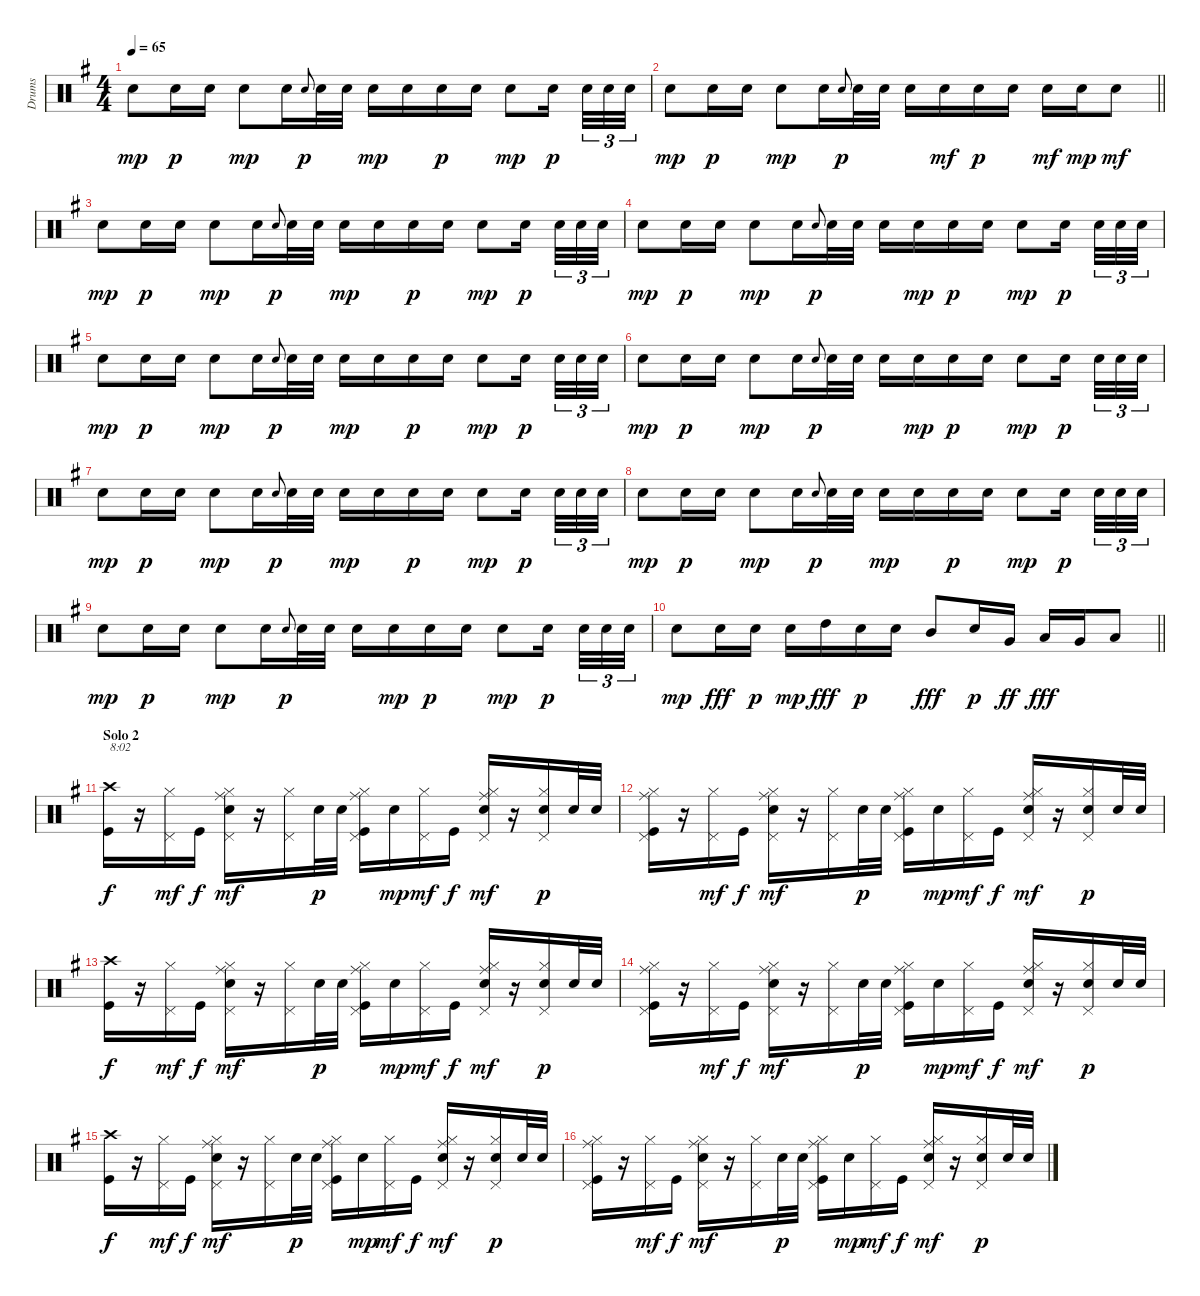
\track ("Drums" "Drums") {instrument percussion}
\staff {score}
\articulation defaults
\ts (4 4)
\tempo 65
\clef neutral
\ks eminor "Electric Snare (hit)".8{dy mp} "Electric Snare (hit)".16{dy p} "Electric Snare (hit)".16 "Electric Snare (hit)".8{dy mp} "Electric Snare (hit)".16 "Electric Snare (hit)".8{gr onbeat dy p} "Electric Snare (hit)".32 "Electric Snare (hit)".32 "Electric Snare (hit)".16{dy mp} "Electric Snare (hit)".16 "Electric Snare (hit)".16{dy p} "Electric Snare (hit)".16 "Electric Snare (hit)".8{dy mp} "Electric Snare (hit)".16{dy p beam splitsecondary} "Electric Snare (hit)".32{tu (3 2)} "Electric Snare (hit)".32{tu (3 2)} "Electric Snare (hit)".32{tu (3 2)}
|
\barLineRight lightlight "Electric Snare (hit)".8{dy mp} "Electric Snare (hit)".16{dy p} "Electric Snare (hit)".16 "Electric Snare (hit)".8{dy mp} "Electric Snare (hit)".16 "Electric Snare (hit)".8{gr onbeat dy p} "Electric Snare (hit)".32 "Electric Snare (hit)".32 "Electric Snare (hit)".16 "Electric Snare (hit)".16{dy mf} "Electric Snare (hit)".16{dy p} "Electric Snare (hit)".16 "Electric Snare (hit)".16{dy mf} "Electric Snare (hit)".16{dy mp} "Electric Snare (hit)".8{dy mf}
|
\section ("" "")
"Electric Snare (hit)".8{dy mp} "Electric Snare (hit)".16{dy p} "Electric Snare (hit)".16 "Electric Snare (hit)".8{dy mp} "Electric Snare (hit)".16 "Electric Snare (hit)".8{gr onbeat dy p} "Electric Snare (hit)".32 "Electric Snare (hit)".32 "Electric Snare (hit)".16{dy mp} "Electric Snare (hit)".16 "Electric Snare (hit)".16{dy p} "Electric Snare (hit)".16 "Electric Snare (hit)".8{dy mp} "Electric Snare (hit)".16{dy p beam splitsecondary} "Electric Snare (hit)".32{tu (3 2)} "Electric Snare (hit)".32{tu (3 2)} "Electric Snare (hit)".32{tu (3 2)} |
"Electric Snare (hit)".8{dy mp} "Electric Snare (hit)".16{dy p} "Electric Snare (hit)".16 "Electric Snare (hit)".8{dy mp} "Electric Snare (hit)".16 "Electric Snare (hit)".8{gr onbeat dy p} "Electric Snare (hit)".32 "Electric Snare (hit)".32 "Electric Snare (hit)".16 "Electric Snare (hit)".16{dy mp} "Electric Snare (hit)".16{dy p} "Electric Snare (hit)".16 "Electric Snare (hit)".8{dy mp} "Electric Snare (hit)".16{dy p beam splitsecondary} "Electric Snare (hit)".32{tu (3 2)} "Electric Snare (hit)".32{tu (3 2)} "Electric Snare (hit)".32{tu (3 2)} |
"Electric Snare (hit)".8{dy mp} "Electric Snare (hit)".16{dy p} "Electric Snare (hit)".16 "Electric Snare (hit)".8{dy mp} "Electric Snare (hit)".16 "Electric Snare (hit)".8{gr onbeat dy p} "Electric Snare (hit)".32 "Electric Snare (hit)".32 "Electric Snare (hit)".16{dy mp} "Electric Snare (hit)".16 "Electric Snare (hit)".16{dy p} "Electric Snare (hit)".16 "Electric Snare (hit)".8{dy mp} "Electric Snare (hit)".16{dy p beam splitsecondary} "Electric Snare (hit)".32{tu (3 2)} "Electric Snare (hit)".32{tu (3 2)} "Electric Snare (hit)".32{tu (3 2)} |
"Electric Snare (hit)".8{dy mp} "Electric Snare (hit)".16{dy p} "Electric Snare (hit)".16 "Electric Snare (hit)".8{dy mp} "Electric Snare (hit)".16 "Electric Snare (hit)".8{gr onbeat dy p} "Electric Snare (hit)".32 "Electric Snare (hit)".32 "Electric Snare (hit)".16 "Electric Snare (hit)".16{dy mp} "Electric Snare (hit)".16{dy p} "Electric Snare (hit)".16 "Electric Snare (hit)".8{dy mp} "Electric Snare (hit)".16{dy p beam splitsecondary} "Electric Snare (hit)".32{tu (3 2)} "Electric Snare (hit)".32{tu (3 2)} "Electric Snare (hit)".32{tu (3 2)} |
"Electric Snare (hit)".8{dy mp} "Electric Snare (hit)".16{dy p} "Electric Snare (hit)".16 "Electric Snare (hit)".8{dy mp} "Electric Snare (hit)".16 "Electric Snare (hit)".8{gr onbeat dy p} "Electric Snare (hit)".32 "Electric Snare (hit)".32 "Electric Snare (hit)".16{dy mp} "Electric Snare (hit)".16 "Electric Snare (hit)".16{dy p} "Electric Snare (hit)".16 "Electric Snare (hit)".8{dy mp} "Electric Snare (hit)".16{dy p beam splitsecondary} "Electric Snare (hit)".32{tu (3 2)} "Electric Snare (hit)".32{tu (3 2)} "Electric Snare (hit)".32{tu (3 2)} |
"Electric Snare (hit)".8{dy mp} "Electric Snare (hit)".16{dy p} "Electric Snare (hit)".16 "Electric Snare (hit)".8{dy mp} "Electric Snare (hit)".16 "Electric Snare (hit)".8{gr onbeat dy p} "Electric Snare (hit)".32 "Electric Snare (hit)".32 "Electric Snare (hit)".16{dy mp} "Electric Snare (hit)".16 "Electric Snare (hit)".16{dy p} "Electric Snare (hit)".16 "Electric Snare (hit)".8{dy mp} "Electric Snare (hit)".16{dy p beam splitsecondary} "Electric Snare (hit)".32{tu (3 2)} "Electric Snare (hit)".32{tu (3 2)} "Electric Snare (hit)".32{tu (3 2)} |
"Electric Snare (hit)".8{dy mp} "Electric Snare (hit)".16{dy p} "Electric Snare (hit)".16 "Electric Snare (hit)".8{dy mp} "Electric Snare (hit)".16 "Electric Snare (hit)".8{gr onbeat dy p} "Electric Snare (hit)".32 "Electric Snare (hit)".32 "Electric Snare (hit)".16 "Electric Snare (hit)".16{dy mp} "Electric Snare (hit)".16{dy p} "Electric Snare (hit)".16 "Electric Snare (hit)".8{dy mp} "Electric Snare (hit)".16{dy p beam splitsecondary} "Electric Snare (hit)".32{tu (3 2)} "Electric Snare (hit)".32{tu (3 2)} "Electric Snare (hit)".32{tu (3 2)} |
\barLineRight lightlight "Electric Snare (hit)".8{dy mp} "Electric Snare (hit)".16{dy fff} "Electric Snare (hit)".16{dy p} "Electric Snare (hit)".16{dy mp} "High Tom (hit)".16{dy fff} "Electric Snare (hit)".16{dy p} "Electric Snare (hit)".16 "Mid Tom (hit)".8{dy fff} "Electric Snare (hit)".16{dy p} "Very Low Tom (hit)".16{dy ff} "Low Tom (hit)".16{dy fff} "Very Low Tom (hit)".16 "Low Floor Tom (hit)".8
|
\section ("" "Solo 2")
("Crash high (hit)" "Kick (hit)").16{txt "8:02" dy f volume 11} r.16 ("Hi-Hat (closed)" "Pedal Hi-Hat (hit)").16{dy mf} "Kick (hit)".16{dy f} ("Ride (middle)" "Hi-Hat (closed)" "Pedal Hi-Hat (hit)" "Electric Snare (hit)").16{dy mf} r.16 ("Hi-Hat (closed)" "Pedal Hi-Hat (hit)").16 "Electric Snare (hit)".32{dy p} "Electric Snare (hit)".32 ("Ride (middle)" "Hi-Hat (closed)" "Pedal Hi-Hat (hit)" "Kick (hit)").16 "Electric Snare (hit)".16{dy mp} ("Hi-Hat (closed)" "Pedal Hi-Hat (hit)").16{dy mf} "Kick (hit)".16{dy f} ("Ride (middle)" "Hi-Hat (closed)" "Pedal Hi-Hat (hit)" "Electric Snare (hit)").16{dy mf} r.16 ("Hi-Hat (closed)" "Pedal Hi-Hat (hit)" "Electric Snare (hit)").16{dy p} "Electric Snare (hit)".32 "Electric Snare (hit)".32 |
("Ride (middle)" "Hi-Hat (closed)" "Pedal Hi-Hat (hit)" "Kick (hit)").16 r.16 ("Hi-Hat (closed)" "Pedal Hi-Hat (hit)").16{dy mf} "Kick (hit)".16{dy f} ("Ride (middle)" "Hi-Hat (closed)" "Pedal Hi-Hat (hit)" "Electric Snare (hit)").16{dy mf} r.16 ("Hi-Hat (closed)" "Pedal Hi-Hat (hit)").16 "Electric Snare (hit)".32{dy p} "Electric Snare (hit)".32 ("Ride (middle)" "Hi-Hat (closed)" "Pedal Hi-Hat (hit)" "Kick (hit)").16 "Electric Snare (hit)".16{dy mp} ("Hi-Hat (closed)" "Pedal Hi-Hat (hit)").16{dy mf} "Kick (hit)".16{dy f} ("Ride (middle)" "Hi-Hat (closed)" "Pedal Hi-Hat (hit)" "Electric Snare (hit)").16{dy mf} r.16 ("Hi-Hat (closed)" "Pedal Hi-Hat (hit)" "Electric Snare (hit)").16{dy p} "Electric Snare (hit)".32 "Electric Snare (hit)".32 |
("Crash high (hit)" "Kick (hit)").16{dy f} r.16 ("Hi-Hat (closed)" "Pedal Hi-Hat (hit)").16{dy mf} "Kick (hit)".16{dy f} ("Ride (middle)" "Hi-Hat (closed)" "Pedal Hi-Hat (hit)" "Electric Snare (hit)").16{dy mf} r.16 ("Hi-Hat (closed)" "Pedal Hi-Hat (hit)").16 "Electric Snare (hit)".32{dy p} "Electric Snare (hit)".32 ("Ride (middle)" "Hi-Hat (closed)" "Pedal Hi-Hat (hit)" "Kick (hit)").16 "Electric Snare (hit)".16{dy mp} ("Hi-Hat (closed)" "Pedal Hi-Hat (hit)").16{dy mf} "Kick (hit)".16{dy f} ("Ride (middle)" "Hi-Hat (closed)" "Pedal Hi-Hat (hit)" "Electric Snare (hit)").16{dy mf} r.16 ("Hi-Hat (closed)" "Pedal Hi-Hat (hit)" "Electric Snare (hit)").16{dy p} "Electric Snare (hit)".32 "Electric Snare (hit)".32 |
("Ride (middle)" "Hi-Hat (closed)" "Pedal Hi-Hat (hit)" "Kick (hit)").16 r.16 ("Hi-Hat (closed)" "Pedal Hi-Hat (hit)").16{dy mf} "Kick (hit)".16{dy f} ("Ride (middle)" "Hi-Hat (closed)" "Pedal Hi-Hat (hit)" "Electric Snare (hit)").16{dy mf} r.16 ("Hi-Hat (closed)" "Pedal Hi-Hat (hit)").16 "Electric Snare (hit)".32{dy p} "Electric Snare (hit)".32 ("Ride (middle)" "Hi-Hat (closed)" "Pedal Hi-Hat (hit)" "Kick (hit)").16 "Electric Snare (hit)".16{dy mp} ("Hi-Hat (closed)" "Pedal Hi-Hat (hit)").16{dy mf} "Kick (hit)".16{dy f} ("Ride (middle)" "Hi-Hat (closed)" "Pedal Hi-Hat (hit)" "Electric Snare (hit)").16{dy mf} r.16 ("Hi-Hat (closed)" "Pedal Hi-Hat (hit)" "Electric Snare (hit)").16{dy p} "Electric Snare (hit)".32 "Electric Snare (hit)".32 |
("Crash high (hit)" "Kick (hit)").16{dy f} r.16 ("Hi-Hat (closed)" "Pedal Hi-Hat (hit)").16{dy mf} "Kick (hit)".16{dy f} ("Ride (middle)" "Hi-Hat (closed)" "Pedal Hi-Hat (hit)" "Electric Snare (hit)").16{dy mf} r.16 ("Hi-Hat (closed)" "Pedal Hi-Hat (hit)").16 "Electric Snare (hit)".32{dy p} "Electric Snare (hit)".32 ("Ride (middle)" "Hi-Hat (closed)" "Pedal Hi-Hat (hit)" "Kick (hit)").16 "Electric Snare (hit)".16{dy mp} ("Hi-Hat (closed)" "Pedal Hi-Hat (hit)").16{dy mf} "Kick (hit)".16{dy f} ("Ride (middle)" "Hi-Hat (closed)" "Pedal Hi-Hat (hit)" "Electric Snare (hit)").16{dy mf} r.16 ("Hi-Hat (closed)" "Pedal Hi-Hat (hit)" "Electric Snare (hit)").16{dy p} "Electric Snare (hit)".32 "Electric Snare (hit)".32 |
("Ride (middle)" "Hi-Hat (closed)" "Pedal Hi-Hat (hit)" "Kick (hit)").16 r.16 ("Hi-Hat (closed)" "Pedal Hi-Hat (hit)").16{dy mf} "Kick (hit)".16{dy f} ("Ride (middle)" "Hi-Hat (closed)" "Pedal Hi-Hat (hit)" "Electric Snare (hit)").16{dy mf} r.16 ("Hi-Hat (closed)" "Pedal Hi-Hat (hit)").16 "Electric Snare (hit)".32{dy p} "Electric Snare (hit)".32 ("Ride (middle)" "Hi-Hat (closed)" "Pedal Hi-Hat (hit)" "Kick (hit)").16 "Electric Snare (hit)".16{dy mp} ("Hi-Hat (closed)" "Pedal Hi-Hat (hit)").16{dy mf} "Kick (hit)".16{dy f} ("Ride (middle)" "Hi-Hat (closed)" "Pedal Hi-Hat (hit)" "Electric Snare (hit)").16{dy mf} r.16 ("Hi-Hat (closed)" "Pedal Hi-Hat (hit)" "Electric Snare (hit)").16{dy p} "Electric Snare (hit)".32 "Electric Snare (hit)".32
